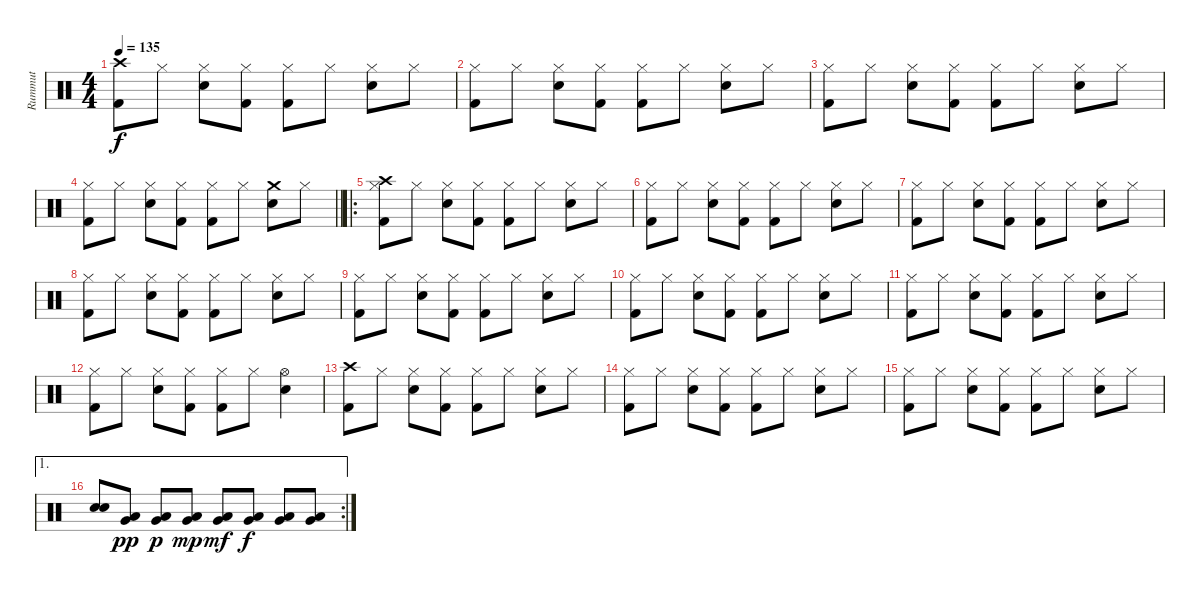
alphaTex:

\track ("Rummut" "Rummut") {instrument percussion}
\staff {score}
\articulation defaults
\ts (4 4)
\tempo 135
\clef neutral
\ks c
("Crash high (hit)" "Kick (hit) 2").8{dy f} "Hi-Hat (closed)".8 ("Hi-Hat (closed)" "Electric Snare (hit)").8 ("Hi-Hat (closed)" "Kick (hit) 2").8 ("Hi-Hat (closed)" "Kick (hit) 2").8 "Hi-Hat (closed)".8 ("Hi-Hat (closed)" "Electric Snare (hit)").8 "Hi-Hat (closed)".8 |
("Hi-Hat (closed)" "Kick (hit) 2").8 "Hi-Hat (closed)".8 ("Hi-Hat (closed)" "Electric Snare (hit)").8 ("Hi-Hat (closed)" "Kick (hit) 2").8 ("Hi-Hat (closed)" "Kick (hit) 2").8 "Hi-Hat (closed)".8 ("Hi-Hat (closed)" "Electric Snare (hit)").8 "Hi-Hat (closed)".8 |
("Hi-Hat (closed)" "Kick (hit) 2").8 "Hi-Hat (closed)".8 ("Hi-Hat (closed)" "Electric Snare (hit)").8 ("Hi-Hat (closed)" "Kick (hit) 2").8 ("Hi-Hat (closed)" "Kick (hit) 2").8 "Hi-Hat (closed)".8 ("Hi-Hat (closed)" "Electric Snare (hit)").8 "Hi-Hat (closed)".8 |
\barLineRight lightlight
("Hi-Hat (closed)" "Kick (hit) 2").8 "Hi-Hat (closed)".8 ("Hi-Hat (closed)" "Electric Snare (hit)").8 ("Hi-Hat (closed)" "Kick (hit) 2").8 ("Hi-Hat (closed)" "Kick (hit) 2").8 "Hi-Hat (closed)".8 ("Crash medium (hit)" "Electric Snare (hit)").8 "Hi-Hat (closed)".8 |
\ro
("Crash high (hit)" "Hi-Hat (closed)" "Kick (hit) 2").8 "Hi-Hat (closed)".8 ("Hi-Hat (closed)" "Electric Snare (hit)").8 ("Hi-Hat (closed)" "Kick (hit) 2").8 ("Hi-Hat (closed)" "Kick (hit) 2").8 "Hi-Hat (closed)".8 ("Hi-Hat (closed)" "Electric Snare (hit)").8 "Hi-Hat (closed)".8 |
("Hi-Hat (closed)" "Kick (hit) 2").8 "Hi-Hat (closed)".8 ("Hi-Hat (closed)" "Electric Snare (hit)").8 ("Hi-Hat (closed)" "Kick (hit) 2").8 ("Hi-Hat (closed)" "Kick (hit) 2").8 "Hi-Hat (closed)".8 ("Hi-Hat (closed)" "Electric Snare (hit)").8 "Hi-Hat (closed)".8 |
("Hi-Hat (closed)" "Kick (hit) 2").8 "Hi-Hat (closed)".8 ("Hi-Hat (closed)" "Electric Snare (hit)").8 ("Hi-Hat (closed)" "Kick (hit) 2").8 ("Hi-Hat (closed)" "Kick (hit) 2").8 "Hi-Hat (closed)".8 ("Hi-Hat (closed)" "Electric Snare (hit)").8 "Hi-Hat (closed)".8 |
("Hi-Hat (closed)" "Kick (hit) 2").8 "Hi-Hat (closed)".8 ("Hi-Hat (closed)" "Electric Snare (hit)").8 ("Hi-Hat (closed)" "Kick (hit) 2").8 ("Hi-Hat (closed)" "Kick (hit) 2").8 "Hi-Hat (closed)".8 ("Hi-Hat (closed)" "Electric Snare (hit)").8 "Hi-Hat (closed)".8 |
("Hi-Hat (closed)" "Kick (hit) 2").8 "Hi-Hat (closed)".8 ("Hi-Hat (closed)" "Electric Snare (hit)").8 ("Hi-Hat (closed)" "Kick (hit) 2").8 ("Hi-Hat (closed)" "Kick (hit) 2").8 "Hi-Hat (closed)".8 ("Hi-Hat (closed)" "Electric Snare (hit)").8 "Hi-Hat (closed)".8 |
("Hi-Hat (closed)" "Kick (hit) 2").8 "Hi-Hat (closed)".8 ("Hi-Hat (closed)" "Electric Snare (hit)").8 ("Hi-Hat (closed)" "Kick (hit) 2").8 ("Hi-Hat (closed)" "Kick (hit) 2").8 "Hi-Hat (closed)".8 ("Hi-Hat (closed)" "Electric Snare (hit)").8 "Hi-Hat (closed)".8 |
("Hi-Hat (closed)" "Kick (hit) 2").8 "Hi-Hat (closed)".8 ("Hi-Hat (closed)" "Electric Snare (hit)").8 ("Hi-Hat (closed)" "Kick (hit) 2").8 ("Hi-Hat (closed)" "Kick (hit) 2").8 "Hi-Hat (closed)".8 ("Hi-Hat (closed)" "Electric Snare (hit)").8 "Hi-Hat (closed)".8 |
("Hi-Hat (closed)" "Kick (hit) 2").8 "Hi-Hat (closed)".8 ("Hi-Hat (closed)" "Electric Snare (hit)").8 ("Hi-Hat (closed)" "Kick (hit) 2").8 ("Hi-Hat (closed)" "Kick (hit) 2").8 "Hi-Hat (closed)".8 ("Hi-Hat (open)" "Electric Snare (hit)").4 |
("Crash high (hit)" "Kick (hit) 2").8 "Hi-Hat (closed)".8 ("Hi-Hat (closed)" "Electric Snare (hit)").8 ("Hi-Hat (closed)" "Kick (hit) 2").8 ("Hi-Hat (closed)" "Kick (hit) 2").8 "Hi-Hat (closed)".8 ("Hi-Hat (closed)" "Electric Snare (hit)").8 "Hi-Hat (closed)".8 |
("Hi-Hat (closed)" "Kick (hit) 2").8 "Hi-Hat (closed)".8 ("Hi-Hat (closed)" "Electric Snare (hit)").8 ("Hi-Hat (closed)" "Kick (hit) 2").8 ("Hi-Hat (closed)" "Kick (hit) 2").8 "Hi-Hat (closed)".8 ("Hi-Hat (closed)" "Electric Snare (hit)").8 "Hi-Hat (closed)".8 |
("Hi-Hat (closed)" "Kick (hit) 2").8 "Hi-Hat (closed)".8 ("Hi-Hat (closed)" "Electric Snare (hit)").8 ("Hi-Hat (closed)" "Kick (hit) 2").8 ("Hi-Hat (closed)" "Kick (hit) 2").8 "Hi-Hat (closed)".8 ("Hi-Hat (closed)" "Electric Snare (hit)").8 "Hi-Hat (closed)".8 |
\ae 1
\rc 2
("Electric Snare (hit)" "Electric Snare (hit)").8 ("Very Low Tom (hit)" "Low Floor Tom (hit)").8{dy pp} ("Very Low Tom (hit)" "Low Floor Tom (hit)").8{dy p} ("Very Low Tom (hit)" "Low Floor Tom (hit)").8{dy mp} ("Very Low Tom (hit)" "Low Floor Tom (hit)").8{dy mf} ("Very Low Tom (hit)" "Low Floor Tom (hit)").8{dy f} ("Very Low Tom (hit)" "Low Floor Tom (hit)").8 ("Very Low Tom (hit)" "Low Floor Tom (hit)").8
